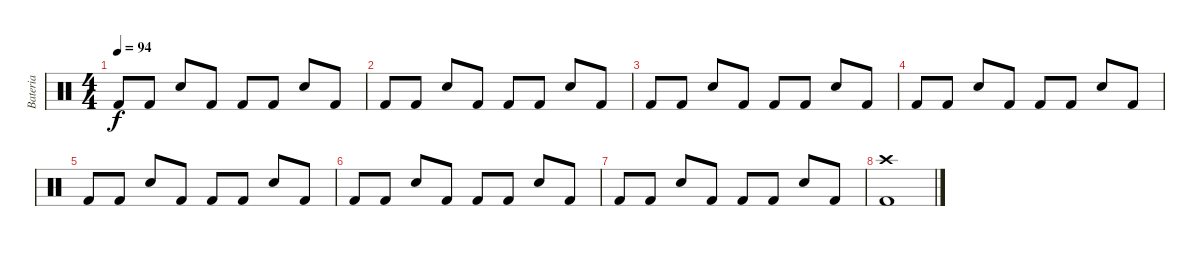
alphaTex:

\track ("Bateria" "Bateria") {instrument percussion}
\staff {score}
\articulation defaults
\ts (4 4)
\tempo 94
\clef neutral
\ks c "Kick (hit) 2".8{dy f} "Kick (hit) 2".8 "Snare (hit) 2".8 "Kick (hit) 2".8 "Kick (hit) 2".8 "Kick (hit) 2".8 "Snare (hit) 2".8 "Kick (hit) 2".8
|
"Kick (hit) 2".8 "Kick (hit) 2".8 "Snare (hit) 2".8 "Kick (hit) 2".8 "Kick (hit) 2".8 "Kick (hit) 2".8 "Snare (hit) 2".8 "Kick (hit) 2".8 |
"Kick (hit) 2".8 "Kick (hit) 2".8 "Snare (hit) 2".8 "Kick (hit) 2".8 "Kick (hit) 2".8 "Kick (hit) 2".8 "Snare (hit) 2".8 "Kick (hit) 2".8 |
"Kick (hit) 2".8 "Kick (hit) 2".8 "Snare (hit) 2".8 "Kick (hit) 2".8 "Kick (hit) 2".8 "Kick (hit) 2".8 "Snare (hit) 2".8 "Kick (hit) 2".8 |
"Kick (hit) 2".8 "Kick (hit) 2".8 "Snare (hit) 2".8 "Kick (hit) 2".8 "Kick (hit) 2".8 "Kick (hit) 2".8 "Snare (hit) 2".8 "Kick (hit) 2".8 |
"Kick (hit) 2".8 "Kick (hit) 2".8 "Snare (hit) 2".8 "Kick (hit) 2".8 "Kick (hit) 2".8 "Kick (hit) 2".8 "Snare (hit) 2".8 "Kick (hit) 2".8 |
"Kick (hit) 2".8 "Kick (hit) 2".8 "Snare (hit) 2".8 "Kick (hit) 2".8 "Kick (hit) 2".8 "Kick (hit) 2".8 "Snare (hit) 2".8 "Kick (hit) 2".8 |
("Kick (hit) 2" "Crash high (hit)").1
